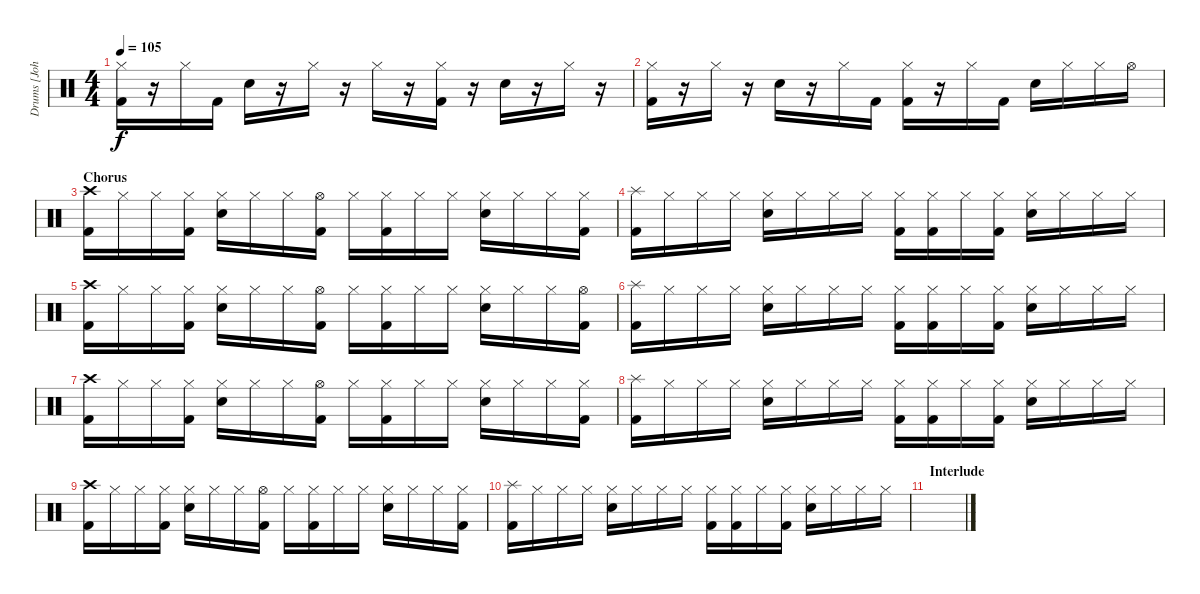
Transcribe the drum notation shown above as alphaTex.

\track ("Drums [John Otto]" "Drums [Joh") {instrument percussion}
\staff {score}
\articulation defaults
\ts (4 4)
\tempo 105
\clef neutral
\ks c
("Hi-Hat (closed)" "Kick (hit) 2").16{dy f} r.16 "Hi-Hat (closed)".16 "Kick (hit) 2".16 "Electric Snare (hit)".16 r.16 "Hi-Hat (closed)".16 r.16 "Hi-Hat (closed)".16 r.16 ("Hi-Hat (closed)" "Kick (hit) 2").16 r.16 "Electric Snare (hit)".16 r.16 "Hi-Hat (closed)".16 r.16 |
("Hi-Hat (closed)" "Kick (hit) 2").16 r.16 "Hi-Hat (closed)".16 r.16 "Electric Snare (hit)".16 r.16 "Hi-Hat (closed)".16 "Kick (hit) 2".16 ("Hi-Hat (closed)" "Kick (hit) 2").16 r.16 "Hi-Hat (closed)".16 "Kick (hit) 2".16 "Electric Snare (hit)".16 "Hi-Hat (closed)".16 "Hi-Hat (closed)".16 "Hi-Hat (open)".16 |
\section ("" "Chorus")
("Crash high (hit)" "Kick (hit) 2").16 "Hi-Hat (closed)".16 "Hi-Hat (closed)".16 ("Hi-Hat (closed)" "Kick (hit) 2").16 ("Hi-Hat (closed)" "Electric Snare (hit)").16 "Hi-Hat (closed)".16 "Hi-Hat (closed)".16 ("Hi-Hat (open)" "Kick (hit) 2").16 "Hi-Hat (closed)".16 ("Hi-Hat (closed)" "Kick (hit) 2").16 "Hi-Hat (closed)".16 "Hi-Hat (closed)".16 ("Hi-Hat (closed)" "Electric Snare (hit)").16 "Hi-Hat (closed)".16 "Hi-Hat (closed)".16 ("Hi-Hat (closed)" "Kick (hit) 2").16 |
("Splash (hit)" "Kick (hit) 2").16 "Hi-Hat (closed)".16 "Hi-Hat (closed)".16 "Hi-Hat (closed)".16 ("Hi-Hat (closed)" "Electric Snare (hit)").16 "Hi-Hat (closed)".16 "Hi-Hat (closed)".16 "Hi-Hat (closed)".16 ("Hi-Hat (closed)" "Kick (hit) 2").16 ("Hi-Hat (closed)" "Kick (hit) 2").16 "Hi-Hat (closed)".16 ("Hi-Hat (closed)" "Kick (hit) 2").16 ("Hi-Hat (closed)" "Electric Snare (hit)").16 "Hi-Hat (closed)".16 "Hi-Hat (closed)".16 "Hi-Hat (closed)".16 |
("Crash high (hit)" "Kick (hit) 2").16 "Hi-Hat (closed)".16 "Hi-Hat (closed)".16 ("Hi-Hat (closed)" "Kick (hit) 2").16 ("Hi-Hat (closed)" "Electric Snare (hit)").16 "Hi-Hat (closed)".16 "Hi-Hat (closed)".16 ("Hi-Hat (open)" "Kick (hit) 2").16 "Hi-Hat (closed)".16 ("Hi-Hat (closed)" "Kick (hit) 2").16 "Hi-Hat (closed)".16 "Hi-Hat (closed)".16 ("Hi-Hat (closed)" "Electric Snare (hit)").16 "Hi-Hat (closed)".16 "Hi-Hat (closed)".16 ("Hi-Hat (open)" "Kick (hit) 2").16 |
("Splash (hit)" "Kick (hit) 2").16 "Hi-Hat (closed)".16 "Hi-Hat (closed)".16 "Hi-Hat (closed)".16 ("Hi-Hat (closed)" "Electric Snare (hit)").16 "Hi-Hat (closed)".16 "Hi-Hat (closed)".16 "Hi-Hat (closed)".16 ("Hi-Hat (closed)" "Kick (hit) 2").16 ("Hi-Hat (closed)" "Kick (hit) 2").16 "Hi-Hat (closed)".16 ("Hi-Hat (closed)" "Kick (hit) 2").16 ("Hi-Hat (closed)" "Electric Snare (hit)").16 "Hi-Hat (closed)".16 "Hi-Hat (closed)".16 "Hi-Hat (closed)".16 |
("Crash high (hit)" "Kick (hit) 2").16 "Hi-Hat (closed)".16 "Hi-Hat (closed)".16 ("Hi-Hat (closed)" "Kick (hit) 2").16 ("Hi-Hat (closed)" "Electric Snare (hit)").16 "Hi-Hat (closed)".16 "Hi-Hat (closed)".16 ("Hi-Hat (open)" "Kick (hit) 2").16 "Hi-Hat (closed)".16 ("Hi-Hat (closed)" "Kick (hit) 2").16 "Hi-Hat (closed)".16 "Hi-Hat (closed)".16 ("Hi-Hat (closed)" "Electric Snare (hit)").16 "Hi-Hat (closed)".16 "Hi-Hat (closed)".16 ("Hi-Hat (closed)" "Kick (hit) 2").16 |
("Splash (hit)" "Kick (hit) 2").16 "Hi-Hat (closed)".16 "Hi-Hat (closed)".16 "Hi-Hat (closed)".16 ("Hi-Hat (closed)" "Electric Snare (hit)").16 "Hi-Hat (closed)".16 "Hi-Hat (closed)".16 "Hi-Hat (closed)".16 ("Hi-Hat (closed)" "Kick (hit) 2").16 ("Hi-Hat (closed)" "Kick (hit) 2").16 "Hi-Hat (closed)".16 ("Hi-Hat (closed)" "Kick (hit) 2").16 ("Hi-Hat (closed)" "Electric Snare (hit)").16 "Hi-Hat (closed)".16 "Hi-Hat (closed)".16 "Hi-Hat (closed)".16 |
("Crash high (hit)" "Kick (hit) 2").16 "Hi-Hat (closed)".16 "Hi-Hat (closed)".16 ("Hi-Hat (closed)" "Kick (hit) 2").16 ("Hi-Hat (closed)" "Electric Snare (hit)").16 "Hi-Hat (closed)".16 "Hi-Hat (closed)".16 ("Hi-Hat (open)" "Kick (hit) 2").16 "Hi-Hat (closed)".16 ("Hi-Hat (closed)" "Kick (hit) 2").16 "Hi-Hat (closed)".16 "Hi-Hat (closed)".16 ("Hi-Hat (closed)" "Electric Snare (hit)").16 "Hi-Hat (closed)".16 "Hi-Hat (closed)".16 ("Hi-Hat (closed)" "Kick (hit) 2").16 |
("Splash (hit)" "Kick (hit) 2").16 "Hi-Hat (closed)".16 "Hi-Hat (closed)".16 "Hi-Hat (closed)".16 ("Hi-Hat (closed)" "Electric Snare (hit)").16 "Hi-Hat (closed)".16 "Hi-Hat (closed)".16 "Hi-Hat (closed)".16 ("Hi-Hat (closed)" "Kick (hit) 2").16 ("Hi-Hat (closed)" "Kick (hit) 2").16 "Hi-Hat (closed)".16 ("Hi-Hat (closed)" "Kick (hit) 2").16 ("Hi-Hat (closed)" "Electric Snare (hit)").16 "Hi-Hat (closed)".16 "Hi-Hat (closed)".16 "Hi-Hat (closed)".16 |
\section ("" "Interlude")
